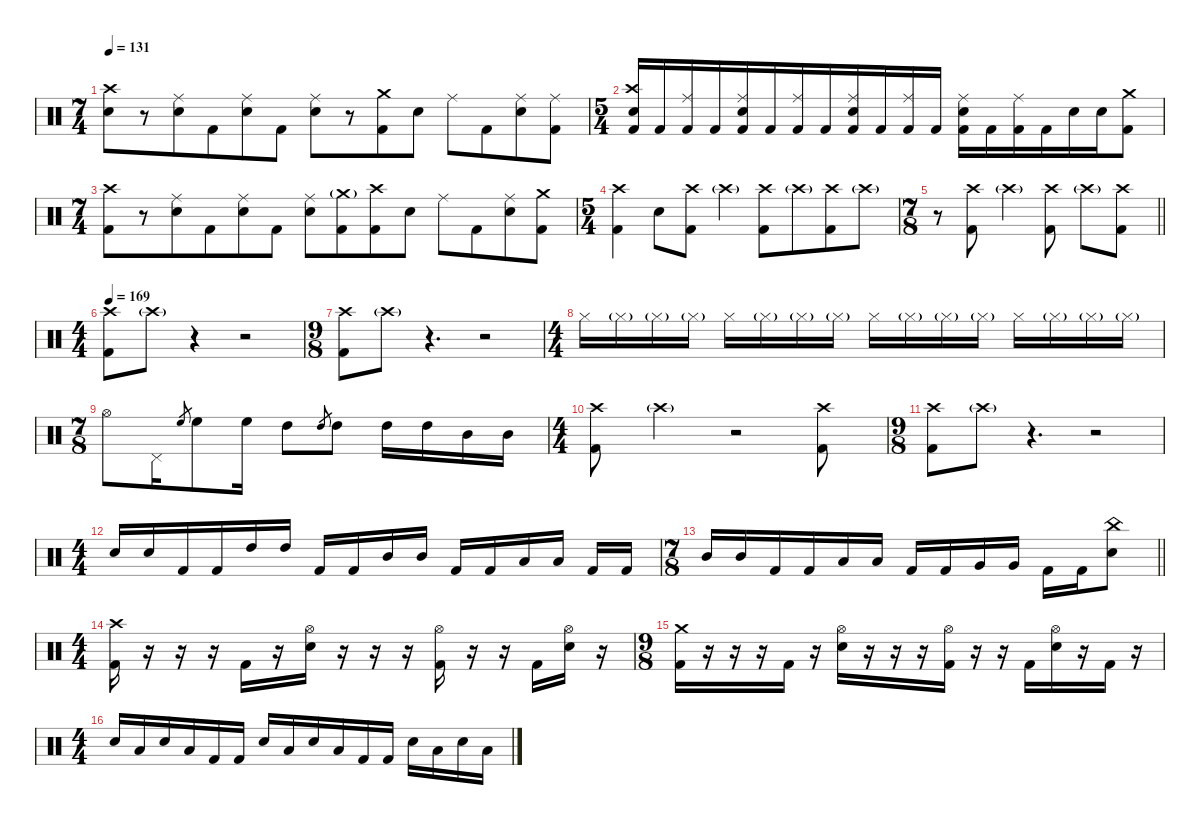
\defaultSystemsLayout 4
\hideDynamics
\bracketExtendMode nobrackets
\singleTrackTrackNamePolicy hidden
\multiTrackTrackNamePolicy hidden
\otherSystemsTrackNameOrientation horizontal
\track ("Drums" "drm.") {defaultSystemsLayout 4 instrument percussion}
\staff {score}
\articulation defaults
\ts (7 4)
\beaming (8 6 4 4)
\tempo 131
\clef neutral
\ks c
("Snare (hit) 2" "Crash high (hit)").8{dy fff beam Down} r.8{beam Down} ("Snare (hit) 2" "Ride (middle)").8{beam Down} "Kick (hit) 2".8{beam Down} ("Snare (hit) 2" "Ride (middle)").8{beam Down} "Kick (hit) 2".8{beam Down} ("Snare (hit) 2" "Ride (middle)").8{beam Down} r.8{beam Down} ("Kick (hit) 2" "Crash medium (hit)").8{beam Down} "Snare (hit) 2".8{beam Down} "Ride (middle)".8{dy mp beam Down} "Kick (hit) 2".8{dy fff beam Down} ("Snare (hit) 2" "Ride (middle)").8{beam Down} ("Kick (hit) 2" "Ride (middle)").8{beam Down} |
\ts (5 4)
\beaming (8 6 4)
("Kick (hit) 2" "Snare (hit) 2" "Crash high (hit)").16{beam Up} "Kick (hit) 2".16{beam Up} ("Kick (hit) 2" "Ride (middle)").16{beam Up} "Kick (hit) 2".16{beam Up} ("Kick (hit) 2" "Snare (hit) 2" "Ride (middle)").16{beam Up} "Kick (hit) 2".16{beam Up} ("Kick (hit) 2" "Ride (middle)").16{beam Up} "Kick (hit) 2".16{beam Up} ("Kick (hit) 2" "Snare (hit) 2" "Ride (middle)").16{beam Up} "Kick (hit) 2".16{beam Up} ("Kick (hit) 2" "Ride (middle)").16{beam Up} "Kick (hit) 2".16{beam Up} ("Kick (hit) 2" "Snare (hit) 2" "Ride (middle)").16{beam Down} "Kick (hit) 2".16{beam Down} ("Kick (hit) 2" "Ride (middle)").16{beam Down} "Kick (hit) 2".16{beam Down} "Snare (hit) 2".16{beam Down} "Snare (hit) 2".16{beam Down} ("Kick (hit) 2" "Crash medium (hit)").8{beam Down} |
\ts (7 4)
\beaming (8 6 4 4)
("Kick (hit) 2" "Crash high (hit)").8{beam Down} r.8{beam Down} ("Snare (hit) 2" "Ride (middle)").8{beam Down} "Kick (hit) 2".8{beam Down} ("Snare (hit) 2" "Ride (middle)").8{beam Down} "Kick (hit) 2".8{beam Down} ("Snare (hit) 2" "Ride (middle)").8{beam Down} ("Kick (hit) 2" "Crash medium (hit)"{g}).8{beam Down} ("Kick (hit) 2" "Crash high (hit)").8{beam Down} "Snare (hit) 2".8{beam Down} "Ride (middle)".8{dy mp beam Down} "Kick (hit) 2".8{dy fff beam Down} ("Snare (hit) 2" "Ride (middle)").8{beam Down} ("Kick (hit) 2" "Crash medium (hit)").8{beam Down} |
\ts (5 4)
\beaming (8 6 4)
("Kick (hit) 2" "Crash high (hit)").4{beam Down} "Snare (hit) 2".8{dy f beam Down} ("Kick (hit) 2" "Crash high (hit)").8{beam Down} "Crash high (hit)"{g}.4{dy pp beam Down} ("Kick (hit) 2" "Crash high (hit)").8{dy f beam Down} "Crash high (hit)"{g}.8{dy pp beam Down} ("Kick (hit) 2" "Crash high (hit)").8{dy f beam Down} "Crash high (hit)"{g}.8{dy pp beam Down} |
\ts (7 8)
\beaming (8 3 2 2)
\barLineRight lightlight
r.8{beam Down} ("Kick (hit) 2" "Crash high (hit)").8{dy f beam Down} "Crash high (hit)"{g}.4{dy pp beam Down} ("Kick (hit) 2" "Crash high (hit)").8{dy f beam Down} "Crash high (hit)"{g}.8{dy pp beam Down} ("Kick (hit) 2" "Crash high (hit)").8{dy f beam Down} |
\ts (4 4)
\beaming (8 2 2 2 2)
\tempo 169
("Kick (hit) 2" "Crash high (hit)").8{dy fff beam Down} "Crash high (hit)"{g}.8{dy pp beam Down} r.4{beam Down} r.2{beam Down} |
\ts (9 8)
\beaming (8 3 3 3)
("Kick (hit) 2" "Crash high (hit)").8{dy fff beam Down} "Crash high (hit)"{g}.8{dy pp beam Down} r.4{d beam Down} r.2{beam Down} |
\ts (4 4)
\beaming (8 2 2 2 2)
"Hi-Hat (closed)".16{dy mf beam Down} "Hi-Hat (closed)"{g}.16{dy mp beam Down} "Hi-Hat (closed)"{g}.16{beam Down} "Hi-Hat (closed)"{g}.16{beam Down} "Hi-Hat (closed)".16{dy mf beam Down} "Hi-Hat (closed)"{g}.16{dy mp beam Down} "Hi-Hat (closed)"{g}.16{beam Down} "Hi-Hat (closed)"{g}.16{beam Down} "Hi-Hat (closed)".16{dy mf beam Down} "Hi-Hat (closed)"{g}.16{dy mp beam Down} "Hi-Hat (closed)"{g}.16{beam Down} "Hi-Hat (closed)"{g}.16{beam Down} "Hi-Hat (closed)".16{dy mf beam Down} "Hi-Hat (closed)"{g}.16{dy mp beam Down} "Hi-Hat (closed)"{g}.16{beam Down} "Hi-Hat (closed)"{g}.16{beam Down} |
\ts (7 8)
\beaming (8 3 2 2)
"Hi-Hat (open)".8{dy mf beam Down} "Pedal Hi-Hat (hit)".16{beam Down} "High Floor Tom (hit)".8{gr dy ff beam Up} "High Floor Tom (hit)".8{dy fff beam Down} "High Floor Tom (hit)".16{beam Down} "High Tom (hit)".8{beam Down} "High Tom (hit)".8{gr dy ff beam Up} "High Tom (hit)".8{dy fff beam Down} "High Tom (hit)".16{beam Down} "High Tom (hit)".16{beam Down} "Mid Tom (hit)".16{beam Down} "Mid Tom (hit)".16{beam Down} |
\ts (4 4)
\beaming (8 3 2 2 1)
("Kick (hit) 2" "Crash high (hit)").8{beam Down} "Crash high (hit)"{g}.4{dy pp beam Down} r.2{beam Down} ("Kick (hit) 2" "Crash high (hit)").8{dy fff beam Down} |
\ts (9 8)
\beaming (8 3 2 2 2)
("Kick (hit) 2" "Crash high (hit)").8{beam Down} "Crash high (hit)"{g}.8{dy pp beam Down} r.4{d beam Down} r.2{beam Down} |
\ts (4 4)
\beaming (8 3 2 2 1)
"Snare (hit) 2".16{dy fff beam Up} "Snare (hit) 2".16{beam Up} "Kick (hit) 2".16{beam Up} "Kick (hit) 2".16{beam Up} "High Tom (hit)".16{beam Up} "High Tom (hit)".16{beam Up} "Kick (hit) 2".16{beam Up} "Kick (hit) 2".16{beam Up} "Mid Tom (hit)".16{beam Up} "Mid Tom (hit)".16{beam Up} "Kick (hit) 2".16{beam Up} "Kick (hit) 2".16{beam Up} "Low Tom (hit)".16{beam Up} "Low Tom (hit)".16{beam Up} "Kick (hit) 2".16{beam Up} "Kick (hit) 2".16{beam Up} |
\ts (7 8)
\beaming (8 3 2 2)
\barLineRight lightlight "Mid Tom (hit)".16{beam Up} "Mid Tom (hit)".16{beam Up} "Kick (hit) 2".16{beam Up} "Kick (hit) 2".16{beam Up} "Low Tom (hit)".16{beam Up} "Low Tom (hit)".16{beam Up} "Kick (hit) 2".16{beam Up} "Kick (hit) 2".16{beam Up} "Very Low Tom (hit)".16{beam Up} "Very Low Tom (hit)".16{beam Up} "Kick (hit) 2".16{beam Down} "Kick (hit) 2".16{beam Down}
("Snare (hit) 2" "China (hit)").8{beam Down} |
\ts (4 4)
\beaming (8 2 2 2 2)
("Kick (hit) 2" "Crash high (hit)").16{beam Down} r.16{beam Down} r.16{beam Down} r.16{beam Down} "Kick (hit) 2".16{beam Down} r.16{beam Down} ("Snare (hit) 2" "Hi-Hat (open)").16{beam Down} r.16{beam Down} r.16{beam Down} r.16{beam Down} ("Kick (hit) 2" "Hi-Hat (open)").16{beam Down} r.16{beam Down} r.16{beam Down} "Kick (hit) 2".16{beam Down} ("Snare (hit) 2" "Hi-Hat (open)").16{beam Down} r.16{beam Down} |
\ts (9 8)
\beaming (8 3 3 3)
("Kick (hit) 2" "Crash medium (hit)").16{beam Down} r.16{beam Down} r.16{beam Down} r.16{beam Down} "Kick (hit) 2".16{beam Down} r.16{beam Down} ("Snare (hit) 2" "Hi-Hat (open)").16{beam Down} r.16{beam Down} r.16{beam Down} r.16{beam Down} ("Kick (hit) 2" "Hi-Hat (open)").16{beam Down} r.16{beam Down} r.16{beam Down} "Kick (hit) 2".16{beam Down} ("Snare (hit) 2" "Hi-Hat (open)").16{beam Down} r.16{beam Down} "Kick (hit) 2".16{beam Down} r.16{beam Down} |
\ts (4 4)
\beaming (8 3 3 3)
"Snare (hit) 2".16{beam Up} "Low Tom (hit)".16{beam Up} "Snare (hit) 2".16{beam Up} "Low Tom (hit)".16{beam Up} "Kick (hit) 2".16{beam Up} "Kick (hit) 2".16{beam Up} "Snare (hit) 2".16{beam Up} "Low Tom (hit)".16{beam Up} "Snare (hit) 2".16{beam Up} "Low Tom (hit)".16{beam Up} "Kick (hit) 2".16{beam Up} "Kick (hit) 2".16{beam Up} "Snare (hit) 2".16{beam Down} "Low Tom (hit)".16{beam Down} "Snare (hit) 2".16{beam Down} "Low Tom (hit)".16{beam Down}
